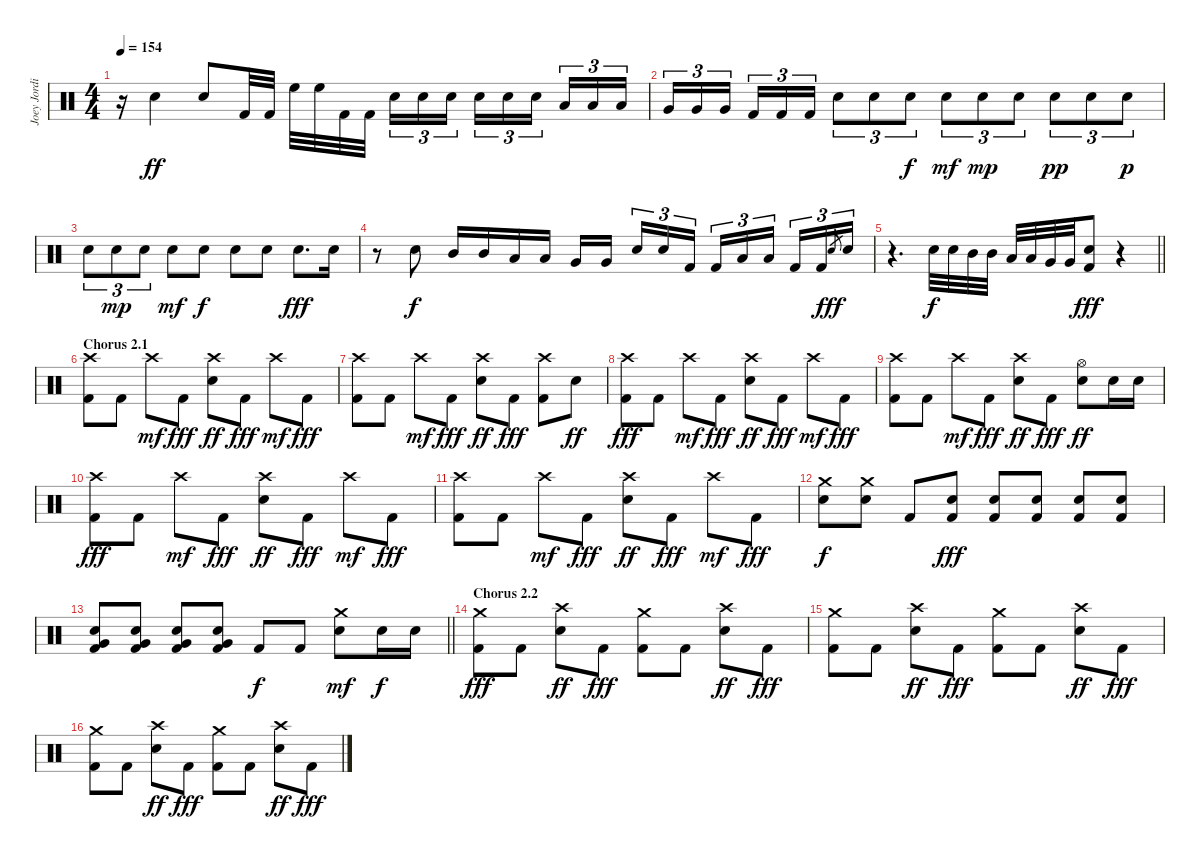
\track ("Joey Jordison" "Joey Jordi") {instrument percussion}
\staff {score}
\articulation defaults
\ts (4 4)
\tempo 154
\clef neutral
\ks c
r.16{dy ff} "Electric Snare (hit)".4 "Electric Snare (hit)".8 "Kick (hit) 2".32 "Kick (hit) 2".32 "High Floor Tom (hit)".32 "High Floor Tom (hit)".32 "Kick (hit) 2".32 "Kick (hit) 2".32{beam splitsecondary} "Electric Snare (hit)".16{tu (3 2)} "Electric Snare (hit)".16{tu (3 2)} "Electric Snare (hit)".16{tu (3 2)} "Electric Snare (hit)".16{tu (3 2)} "Electric Snare (hit)".16{tu (3 2)} "Electric Snare (hit)".16{tu (3 2) beam splitsecondary} "Low Tom (hit)".16{tu (3 2)} "Low Tom (hit)".16{tu (3 2)} "Low Tom (hit)".16{tu (3 2)} |
"Very Low Tom (hit)".16{tu (3 2)} "Very Low Tom (hit)".16{tu (3 2)} "Very Low Tom (hit)".16{tu (3 2) beam splitsecondary} "Kick (hit) 2".16{tu (3 2)} "Kick (hit) 2".16{tu (3 2)} "Kick (hit) 2".16{tu (3 2)} "Electric Snare (hit)".8{tu (3 2)} "Electric Snare (hit)".8{tu (3 2)} "Electric Snare (hit)".8{tu (3 2) dy f} "Electric Snare (hit)".8{tu (3 2) dy mf} "Electric Snare (hit)".8{tu (3 2) dy mp} "Electric Snare (hit)".8{tu (3 2)} "Electric Snare (hit)".8{tu (3 2) dy pp} "Electric Snare (hit)".8{tu (3 2)} "Electric Snare (hit)".8{tu (3 2) dy p} |
"Electric Snare (hit)".8{tu (3 2)} "Electric Snare (hit)".8{tu (3 2) dy mp} "Electric Snare (hit)".8{tu (3 2)} "Electric Snare (hit)".8{dy mf} "Electric Snare (hit)".8{dy f} "Electric Snare (hit)".8 "Electric Snare (hit)".8 "Electric Snare (hit)".8{d dy fff} "Electric Snare (hit)".16 |
r.8 "Electric Snare (hit)".8{dy f} "Mid Tom (hit)".16 "Mid Tom (hit)".16 "Low Tom (hit)".16 "Low Tom (hit)".16 "Very Low Tom (hit)".16 "Very Low Tom (hit)".16{beam splitsecondary} "Electric Snare (hit)".16{tu (3 2)} "Electric Snare (hit)".16{tu (3 2)} "Kick (hit) 2".16{tu (3 2)} "Kick (hit) 2".16{tu (3 2)} "Low Tom (hit)".16{tu (3 2)} "Low Tom (hit)".16{tu (3 2) beam splitsecondary} "Kick (hit) 2".16{tu (3 2)} "Kick (hit) 2".16{tu (3 2)} "Electric Snare (hit)".8{gr dy fff} "Electric Snare (hit)".16{tu (3 2)} |
\barLineRight lightlight
r.4{d} "Electric Snare (hit)".32{dy f} "Electric Snare (hit)".32 "Mid Tom (hit)".32 "Mid Tom (hit)".32 "Low Tom (hit)".32 "Low Tom (hit)".32 "Very Low Tom (hit)".32 "Very Low Tom (hit)".32 ("Electric Snare (hit)" "Kick (hit) 2").8{dy fff} r.4 |
\section ("" "Chorus 2.1")
("Crash high (hit)" "Kick (hit) 2").8 "Kick (hit) 2".8 "Crash high (hit)".8{dy mf} "Kick (hit) 2".8{dy fff} ("Crash high (hit)" "Electric Snare (hit)").8{dy ff} "Kick (hit) 2".8{dy fff} "Crash high (hit)".8{dy mf} "Kick (hit) 2".8{dy fff} |
("Crash high (hit)" "Kick (hit) 2").8 "Kick (hit) 2".8 "Crash high (hit)".8{dy mf} "Kick (hit) 2".8{dy fff} ("Crash high (hit)" "Electric Snare (hit)").8{dy ff} "Kick (hit) 2".8{dy fff} ("Crash high (hit)" "Kick (hit) 2").8 "Electric Snare (hit)".8{dy ff} |
("Crash high (hit)" "Kick (hit) 2").8{dy fff} "Kick (hit) 2".8 "Crash high (hit)".8{dy mf} "Kick (hit) 2".8{dy fff} ("Crash high (hit)" "Electric Snare (hit)").8{dy ff} "Kick (hit) 2".8{dy fff} "Crash high (hit)".8{dy mf} "Kick (hit) 2".8{dy fff} |
("Crash high (hit)" "Kick (hit) 2").8 "Kick (hit) 2".8 "Crash high (hit)".8{dy mf} "Kick (hit) 2".8{dy fff} ("Crash high (hit)" "Electric Snare (hit)").8{dy ff} "Kick (hit) 2".8{dy fff} ("Hi-Hat (open)" "Electric Snare (hit)").8{dy ff} "Electric Snare (hit)".16 "Electric Snare (hit)".16 |
("Crash high (hit)" "Kick (hit) 2").8{dy fff} "Kick (hit) 2".8 "Crash high (hit)".8{dy mf} "Kick (hit) 2".8{dy fff} ("Crash high (hit)" "Electric Snare (hit)").8{dy ff} "Kick (hit) 2".8{dy fff} "Crash high (hit)".8{dy mf} "Kick (hit) 2".8{dy fff} |
("Crash high (hit)" "Kick (hit) 2").8 "Kick (hit) 2".8 "Crash high (hit)".8{dy mf} "Kick (hit) 2".8{dy fff} ("Crash high (hit)" "Electric Snare (hit)").8{dy ff} "Kick (hit) 2".8{dy fff} "Crash high (hit)".8{dy mf} "Kick (hit) 2".8{dy fff} |
("Crash medium (hit)" "Electric Snare (hit)").8{dy f} ("Crash medium (hit)" "Electric Snare (hit)").8 "Kick (hit) 2".8 ("Electric Snare (hit)" "Kick (hit) 2").8{dy fff} ("Electric Snare (hit)" "Kick (hit) 2").8 ("Electric Snare (hit)" "Kick (hit) 2").8 ("Electric Snare (hit)" "Kick (hit) 2").8 ("Electric Snare (hit)" "Kick (hit) 2").8 |
\barLineRight lightlight
("Electric Snare (hit)" "Very Low Tom (hit)" "Kick (hit) 2").8 ("Electric Snare (hit)" "Very Low Tom (hit)" "Kick (hit) 2").8 ("Electric Snare (hit)" "Very Low Tom (hit)" "Kick (hit) 2").8 ("Electric Snare (hit)" "Very Low Tom (hit)" "Kick (hit) 2").8 "Kick (hit) 2".8{dy f} "Kick (hit) 2".8 ("Crash medium (hit)" "Electric Snare (hit)").8{dy mf} "Electric Snare (hit)".16{dy f} "Electric Snare (hit)".16 |
\section ("" "Chorus 2.2")
("Crash medium (hit)" "Kick (hit) 2").8{dy fff} "Kick (hit) 2".8 ("Crash high (hit)" "Electric Snare (hit)").8{dy ff} "Kick (hit) 2".8{dy fff} ("Crash medium (hit)" "Kick (hit) 2").8 "Kick (hit) 2".8 ("Crash high (hit)" "Electric Snare (hit)").8{dy ff} "Kick (hit) 2".8{dy fff} |
("Crash medium (hit)" "Kick (hit) 2").8 "Kick (hit) 2".8 ("Crash high (hit)" "Electric Snare (hit)").8{dy ff} "Kick (hit) 2".8{dy fff} ("Crash medium (hit)" "Kick (hit) 2").8 "Kick (hit) 2".8 ("Crash high (hit)" "Electric Snare (hit)").8{dy ff} "Kick (hit) 2".8{dy fff} |
("Crash medium (hit)" "Kick (hit) 2").8 "Kick (hit) 2".8 ("Crash high (hit)" "Electric Snare (hit)").8{dy ff} "Kick (hit) 2".8{dy fff} ("Crash medium (hit)" "Kick (hit) 2").8 "Kick (hit) 2".8 ("Crash high (hit)" "Electric Snare (hit)").8{dy ff} "Kick (hit) 2".8{dy fff}
